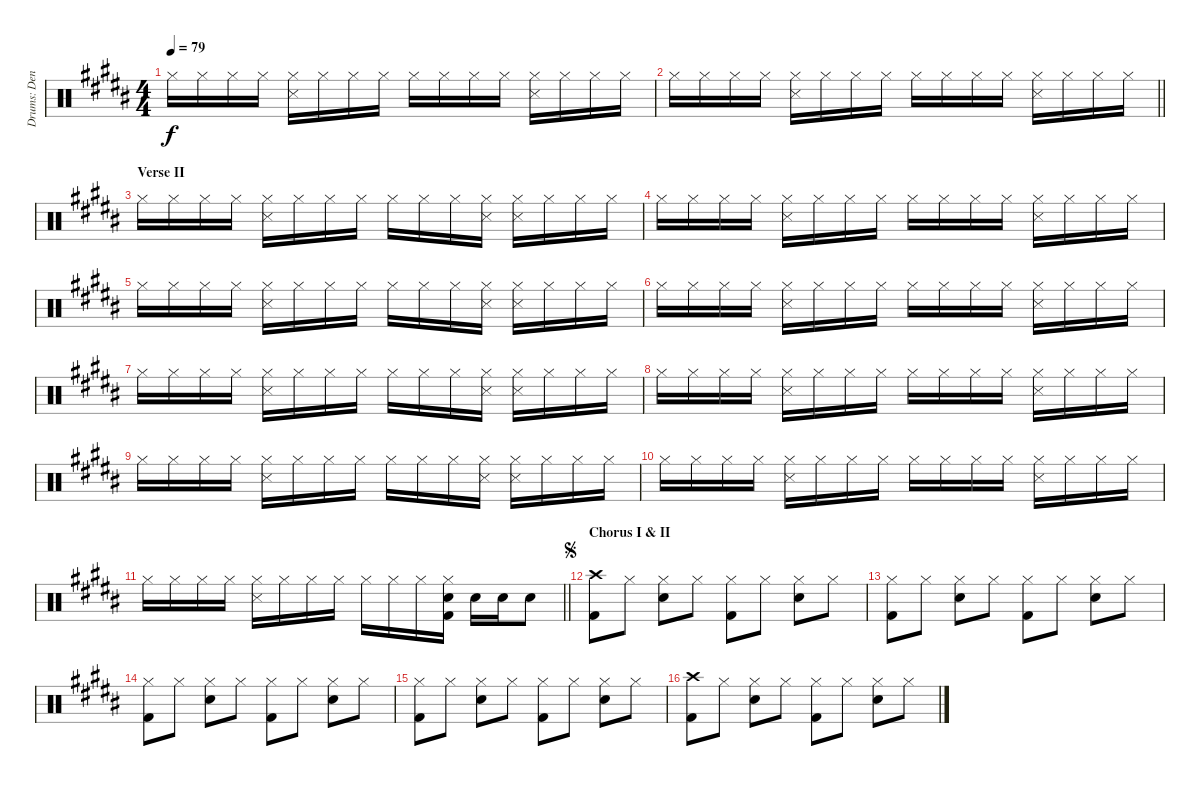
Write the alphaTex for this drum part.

\track ("Drums: Denny" "Drums: Den") {instrument percussion}
\staff {score}
\articulation defaults
\ts (4 4)
\tempo 79
\clef neutral
\ks b "Hi-Hat (closed)".16{dy f} "Hi-Hat (closed)".16 "Hi-Hat (closed)".16 "Hi-Hat (closed)".16
("Hi-Hat (closed)" "Snare (side stick) 3").16 "Hi-Hat (closed)".16 "Hi-Hat (closed)".16 "Hi-Hat (closed)".16 "Hi-Hat (closed)".16 "Hi-Hat (closed)".16 "Hi-Hat (closed)".16 "Hi-Hat (closed)".16 ("Hi-Hat (closed)" "Snare (side stick) 3").16 "Hi-Hat (closed)".16 "Hi-Hat (closed)".16 "Hi-Hat (closed)".16 |
\barLineRight lightlight "Hi-Hat (closed)".16 "Hi-Hat (closed)".16 "Hi-Hat (closed)".16 "Hi-Hat (closed)".16
("Hi-Hat (closed)" "Snare (side stick) 3").16 "Hi-Hat (closed)".16 "Hi-Hat (closed)".16 "Hi-Hat (closed)".16 "Hi-Hat (closed)".16 "Hi-Hat (closed)".16 "Hi-Hat (closed)".16 "Hi-Hat (closed)".16 ("Hi-Hat (closed)" "Snare (side stick) 3").16 "Hi-Hat (closed)".16 "Hi-Hat (closed)".16 "Hi-Hat (closed)".16 |
\section ("" "Verse II")
"Hi-Hat (closed)".16 "Hi-Hat (closed)".16 "Hi-Hat (closed)".16 "Hi-Hat (closed)".16 ("Hi-Hat (closed)" "Snare (side stick) 3").16 "Hi-Hat (closed)".16 "Hi-Hat (closed)".16 "Hi-Hat (closed)".16 "Hi-Hat (closed)".16 "Hi-Hat (closed)".16 "Hi-Hat (closed)".16 ("Hi-Hat (closed)" "Snare (side stick) 3").16 ("Hi-Hat (closed)" "Snare (side stick) 3").16 "Hi-Hat (closed)".16 "Hi-Hat (closed)".16 "Hi-Hat (closed)".16 |
"Hi-Hat (closed)".16 "Hi-Hat (closed)".16 "Hi-Hat (closed)".16 "Hi-Hat (closed)".16 ("Hi-Hat (closed)" "Snare (side stick) 3").16 "Hi-Hat (closed)".16 "Hi-Hat (closed)".16 "Hi-Hat (closed)".16 "Hi-Hat (closed)".16 "Hi-Hat (closed)".16 "Hi-Hat (closed)".16 "Hi-Hat (closed)".16 ("Hi-Hat (closed)" "Snare (side stick) 3").16 "Hi-Hat (closed)".16 "Hi-Hat (closed)".16 "Hi-Hat (closed)".16 |
"Hi-Hat (closed)".16 "Hi-Hat (closed)".16 "Hi-Hat (closed)".16 "Hi-Hat (closed)".16 ("Hi-Hat (closed)" "Snare (side stick) 3").16 "Hi-Hat (closed)".16 "Hi-Hat (closed)".16 "Hi-Hat (closed)".16 "Hi-Hat (closed)".16 "Hi-Hat (closed)".16 "Hi-Hat (closed)".16 ("Hi-Hat (closed)" "Snare (side stick) 3").16 ("Hi-Hat (closed)" "Snare (side stick) 3").16 "Hi-Hat (closed)".16 "Hi-Hat (closed)".16 "Hi-Hat (closed)".16 |
"Hi-Hat (closed)".16 "Hi-Hat (closed)".16 "Hi-Hat (closed)".16 "Hi-Hat (closed)".16 ("Hi-Hat (closed)" "Snare (side stick) 3").16 "Hi-Hat (closed)".16 "Hi-Hat (closed)".16 "Hi-Hat (closed)".16 "Hi-Hat (closed)".16 "Hi-Hat (closed)".16 "Hi-Hat (closed)".16 "Hi-Hat (closed)".16 ("Hi-Hat (closed)" "Snare (side stick) 3").16 "Hi-Hat (closed)".16 "Hi-Hat (closed)".16 "Hi-Hat (closed)".16 |
"Hi-Hat (closed)".16 "Hi-Hat (closed)".16 "Hi-Hat (closed)".16 "Hi-Hat (closed)".16 ("Hi-Hat (closed)" "Snare (side stick) 3").16 "Hi-Hat (closed)".16 "Hi-Hat (closed)".16 "Hi-Hat (closed)".16 "Hi-Hat (closed)".16 "Hi-Hat (closed)".16 "Hi-Hat (closed)".16 ("Hi-Hat (closed)" "Snare (side stick) 3").16 ("Hi-Hat (closed)" "Snare (side stick) 3").16 "Hi-Hat (closed)".16 "Hi-Hat (closed)".16 "Hi-Hat (closed)".16 |
"Hi-Hat (closed)".16 "Hi-Hat (closed)".16 "Hi-Hat (closed)".16 "Hi-Hat (closed)".16 ("Hi-Hat (closed)" "Snare (side stick) 3").16 "Hi-Hat (closed)".16 "Hi-Hat (closed)".16 "Hi-Hat (closed)".16 "Hi-Hat (closed)".16 "Hi-Hat (closed)".16 "Hi-Hat (closed)".16 "Hi-Hat (closed)".16 ("Hi-Hat (closed)" "Snare (side stick) 3").16 "Hi-Hat (closed)".16 "Hi-Hat (closed)".16 "Hi-Hat (closed)".16 |
"Hi-Hat (closed)".16 "Hi-Hat (closed)".16 "Hi-Hat (closed)".16 "Hi-Hat (closed)".16 ("Hi-Hat (closed)" "Snare (side stick) 3").16 "Hi-Hat (closed)".16 "Hi-Hat (closed)".16 "Hi-Hat (closed)".16 "Hi-Hat (closed)".16 "Hi-Hat (closed)".16 "Hi-Hat (closed)".16 ("Hi-Hat (closed)" "Snare (side stick) 3").16 ("Hi-Hat (closed)" "Snare (side stick) 3").16 "Hi-Hat (closed)".16 "Hi-Hat (closed)".16 "Hi-Hat (closed)".16 |
"Hi-Hat (closed)".16 "Hi-Hat (closed)".16 "Hi-Hat (closed)".16 "Hi-Hat (closed)".16 ("Hi-Hat (closed)" "Snare (side stick) 3").16 "Hi-Hat (closed)".16 "Hi-Hat (closed)".16 "Hi-Hat (closed)".16 "Hi-Hat (closed)".16 "Hi-Hat (closed)".16 "Hi-Hat (closed)".16 "Hi-Hat (closed)".16 ("Hi-Hat (closed)" "Snare (side stick) 3").16 "Hi-Hat (closed)".16 "Hi-Hat (closed)".16 "Hi-Hat (closed)".16 |
\barLineRight lightlight "Hi-Hat (closed)".16 "Hi-Hat (closed)".16 "Hi-Hat (closed)".16 "Hi-Hat (closed)".16
("Hi-Hat (closed)" "Snare (side stick) 3").16 "Hi-Hat (closed)".16 "Hi-Hat (closed)".16 "Hi-Hat (closed)".16 "Hi-Hat (closed)".16 "Hi-Hat (closed)".16 "Hi-Hat (closed)".16 ("Hi-Hat (closed)" "Electric Snare (hit)" "Kick (hit) 2").16 "Electric Snare (hit)".16 "Electric Snare (hit)".16 "Electric Snare (hit)".8 |
\section ("" "Chorus I & II")
\jump segno
("Crash high (hit)" "Kick (hit) 2").8 "Hi-Hat (closed)".8 ("Hi-Hat (closed)" "Snare (hit) 2").8 "Hi-Hat (closed)".8 ("Hi-Hat (closed)" "Kick (hit) 2").8 "Hi-Hat (closed)".8 ("Hi-Hat (closed)" "Snare (hit) 2").8 "Hi-Hat (closed)".8 |
("Hi-Hat (closed)" "Kick (hit) 2").8 "Hi-Hat (closed)".8 ("Hi-Hat (closed)" "Snare (hit) 2").8 "Hi-Hat (closed)".8 ("Hi-Hat (closed)" "Kick (hit) 2").8 "Hi-Hat (closed)".8 ("Hi-Hat (closed)" "Snare (hit) 2").8 "Hi-Hat (closed)".8 |
("Hi-Hat (closed)" "Kick (hit) 2").8 "Hi-Hat (closed)".8 ("Hi-Hat (closed)" "Snare (hit) 2").8 "Hi-Hat (closed)".8 ("Hi-Hat (closed)" "Kick (hit) 2").8 "Hi-Hat (closed)".8 ("Hi-Hat (closed)" "Snare (hit) 2").8 "Hi-Hat (closed)".8 |
("Hi-Hat (closed)" "Kick (hit) 2").8 "Hi-Hat (closed)".8 ("Hi-Hat (closed)" "Snare (hit) 2").8 "Hi-Hat (closed)".8 ("Hi-Hat (closed)" "Kick (hit) 2").8 "Hi-Hat (closed)".8 ("Hi-Hat (closed)" "Snare (hit) 2").8 "Hi-Hat (closed)".8 |
("Crash high (hit)" "Kick (hit) 2").8 "Hi-Hat (closed)".8 ("Hi-Hat (closed)" "Snare (hit) 2").8 "Hi-Hat (closed)".8 ("Hi-Hat (closed)" "Kick (hit) 2").8 "Hi-Hat (closed)".8 ("Hi-Hat (closed)" "Snare (hit) 2").8 "Hi-Hat (closed)".8
